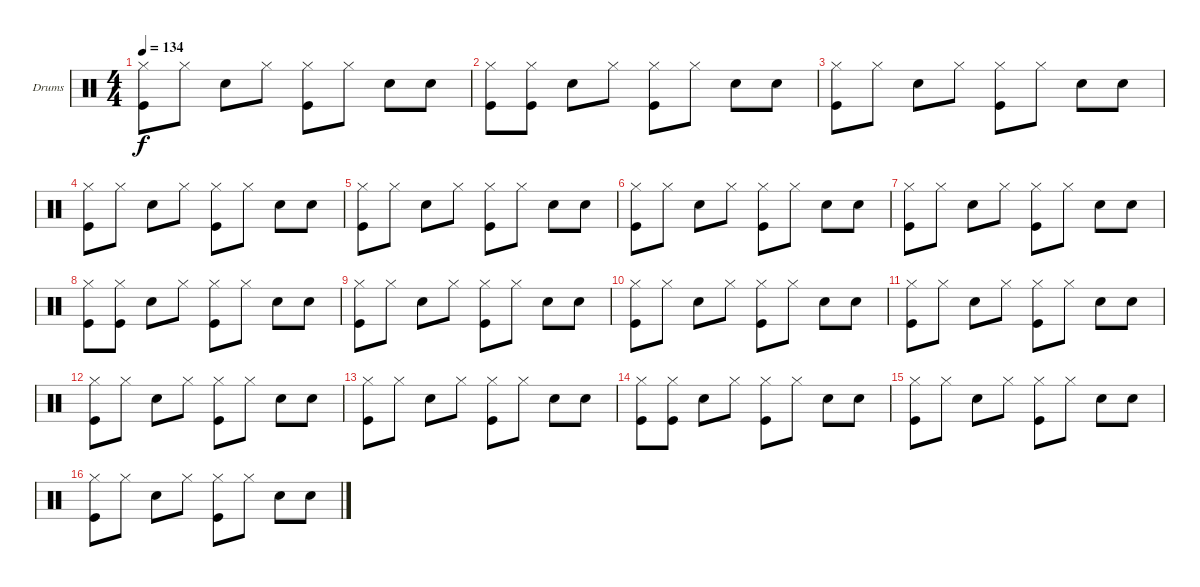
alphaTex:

\defaultSystemsLayout 4
\bracketExtendMode groupsimilarinstruments
\firstSystemTrackNameOrientation horizontal
\otherSystemsTrackNameOrientation horizontal
\track ("Гурьянов" "Drums") {instrument percussion}
\staff {score}
\articulation defaults
\ts (4 4)
\tempo 134
\clef neutral
\scale
0.333333
\ks c
("Hi-Hat (closed)" "Kick (hit)").8{dy f} "Hi-Hat (closed)".8 "Snare (hit) 2".8 "Hi-Hat (closed)".8 ("Hi-Hat (closed)" "Kick (hit)").8 "Hi-Hat (closed)".8 "Snare (hit) 2".8 "Snare (hit) 2".8 |
\scale
0.333333 ("Hi-Hat (closed)" "Kick (hit)").8 ("Hi-Hat (closed)" "Kick (hit)").8 "Snare (hit) 2".8 "Hi-Hat (closed)".8 ("Hi-Hat (closed)" "Kick (hit)").8 "Hi-Hat (closed)".8 "Snare (hit) 2".8 "Snare (hit) 2".8 |
\scale
0.333333 ("Hi-Hat (closed)" "Kick (hit)").8 "Hi-Hat (closed)".8 "Snare (hit) 2".8 "Hi-Hat (closed)".8 ("Hi-Hat (closed)" "Kick (hit)").8 "Hi-Hat (closed)".8 "Snare (hit) 2".8 "Snare (hit) 2".8 |
\scale
0.333333 ("Hi-Hat (closed)" "Kick (hit)").8 "Hi-Hat (closed)".8 "Snare (hit) 2".8 "Hi-Hat (closed)".8 ("Hi-Hat (closed)" "Kick (hit)").8 "Hi-Hat (closed)".8 "Snare (hit) 2".8 "Snare (hit) 2".8 |
\scale
0.333333 ("Hi-Hat (closed)" "Kick (hit)").8 "Hi-Hat (closed)".8 "Snare (hit) 2".8 "Hi-Hat (closed)".8 ("Hi-Hat (closed)" "Kick (hit)").8 "Hi-Hat (closed)".8 "Snare (hit) 2".8 "Snare (hit) 2".8 |
\scale
0.333333 ("Hi-Hat (closed)" "Kick (hit)").8 "Hi-Hat (closed)".8 "Snare (hit) 2".8 "Hi-Hat (closed)".8 ("Hi-Hat (closed)" "Kick (hit)").8 "Hi-Hat (closed)".8 "Snare (hit) 2".8 "Snare (hit) 2".8 |
\scale
0.333333 ("Hi-Hat (closed)" "Kick (hit)").8 "Hi-Hat (closed)".8 "Snare (hit) 2".8 "Hi-Hat (closed)".8 ("Hi-Hat (closed)" "Kick (hit)").8 "Hi-Hat (closed)".8 "Snare (hit) 2".8 "Snare (hit) 2".8 |
\scale
0.333333 ("Hi-Hat (closed)" "Kick (hit)").8 ("Hi-Hat (closed)" "Kick (hit)").8 "Snare (hit) 2".8 "Hi-Hat (closed)".8 ("Hi-Hat (closed)" "Kick (hit)").8 "Hi-Hat (closed)".8 "Snare (hit) 2".8 "Snare (hit) 2".8 |
\scale
0.333333 ("Hi-Hat (closed)" "Kick (hit)").8 "Hi-Hat (closed)".8 "Snare (hit) 2".8 "Hi-Hat (closed)".8 ("Hi-Hat (closed)" "Kick (hit)").8 "Hi-Hat (closed)".8 "Snare (hit) 2".8 "Snare (hit) 2".8 |
\scale
0.333333 ("Hi-Hat (closed)" "Kick (hit)").8 "Hi-Hat (closed)".8 "Snare (hit) 2".8 "Hi-Hat (closed)".8 ("Hi-Hat (closed)" "Kick (hit)").8 "Hi-Hat (closed)".8 "Snare (hit) 2".8 "Snare (hit) 2".8 |
\scale
0.333333 ("Hi-Hat (closed)" "Kick (hit)").8 "Hi-Hat (closed)".8 "Snare (hit) 2".8 "Hi-Hat (closed)".8 ("Hi-Hat (closed)" "Kick (hit)").8 "Hi-Hat (closed)".8 "Snare (hit) 2".8 "Snare (hit) 2".8 |
\scale
0.333333 ("Hi-Hat (closed)" "Kick (hit)").8 "Hi-Hat (closed)".8 "Snare (hit) 2".8 "Hi-Hat (closed)".8 ("Hi-Hat (closed)" "Kick (hit)").8 "Hi-Hat (closed)".8 "Snare (hit) 2".8 "Snare (hit) 2".8 |
\scale
0.333333 ("Hi-Hat (closed)" "Kick (hit)").8 "Hi-Hat (closed)".8 "Snare (hit) 2".8 "Hi-Hat (closed)".8 ("Hi-Hat (closed)" "Kick (hit)").8 "Hi-Hat (closed)".8 "Snare (hit) 2".8 "Snare (hit) 2".8 |
\scale
0.333333 ("Hi-Hat (closed)" "Kick (hit)").8 ("Hi-Hat (closed)" "Kick (hit)").8 "Snare (hit) 2".8 "Hi-Hat (closed)".8 ("Hi-Hat (closed)" "Kick (hit)").8 "Hi-Hat (closed)".8 "Snare (hit) 2".8 "Snare (hit) 2".8 |
\scale
0.333333 ("Hi-Hat (closed)" "Kick (hit)").8 "Hi-Hat (closed)".8 "Snare (hit) 2".8 "Hi-Hat (closed)".8 ("Hi-Hat (closed)" "Kick (hit)").8 "Hi-Hat (closed)".8 "Snare (hit) 2".8 "Snare (hit) 2".8 |
\scale
0.333333 ("Hi-Hat (closed)" "Kick (hit)").8 "Hi-Hat (closed)".8 "Snare (hit) 2".8 "Hi-Hat (closed)".8 ("Hi-Hat (closed)" "Kick (hit)").8 "Hi-Hat (closed)".8 "Snare (hit) 2".8 "Snare (hit) 2".8
